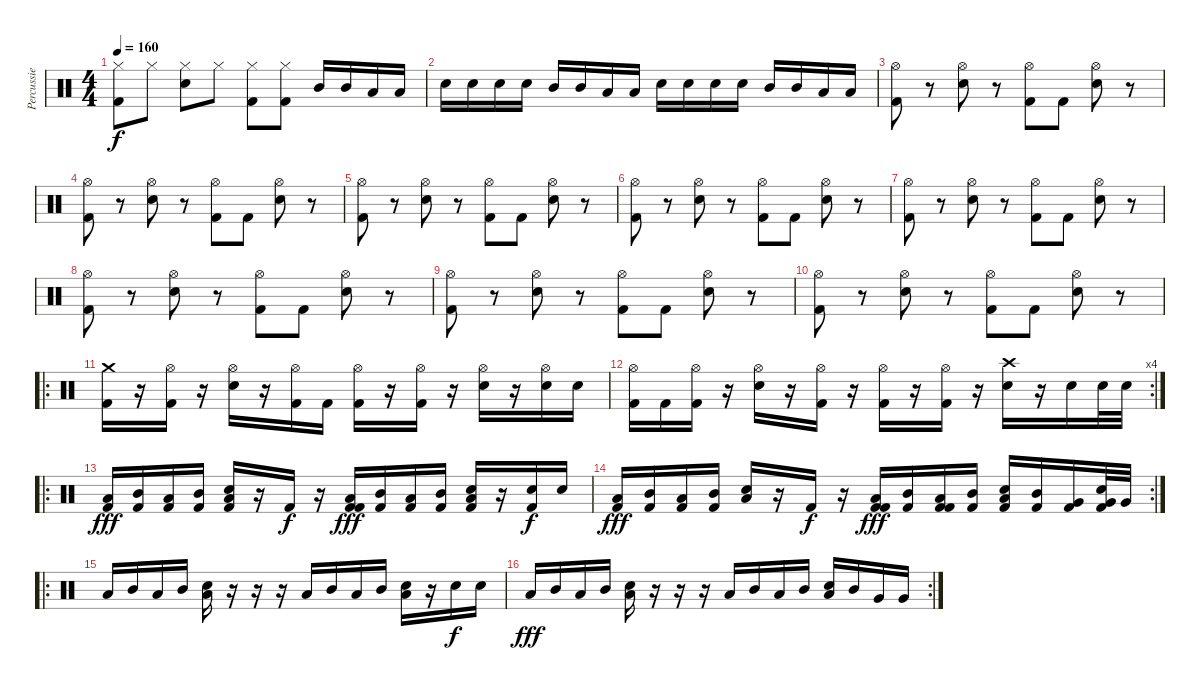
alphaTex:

\track ("Percussie" "Percussie") {instrument percussion}
\staff {score}
\articulation defaults
\ts (4 4)
\tempo 160
\clef neutral
\ks c
("Hi-Hat (closed)" "Kick (hit) 2").8{dy f} "Hi-Hat (closed)".8 ("Hi-Hat (closed)" "Electric Snare (hit)").8 "Hi-Hat (closed)".8 ("Hi-Hat (closed)" "Kick (hit) 2").8 ("Hi-Hat (closed)" "Kick (hit) 2").8 "Mid Tom (hit)".16 "Mid Tom (hit)".16 "Low Tom (hit)".16 "Low Tom (hit)".16 |
"Electric Snare (hit)".16 "Electric Snare (hit)".16 "Electric Snare (hit)".16 "Electric Snare (hit)".16 "Mid Tom (hit)".16 "Mid Tom (hit)".16 "Low Tom (hit)".16 "Low Tom (hit)".16 "Electric Snare (hit)".16 "Electric Snare (hit)".16 "Electric Snare (hit)".16 "Electric Snare (hit)".16 "Mid Tom (hit)".16 "Mid Tom (hit)".16 "Low Tom (hit)".16 "Low Tom (hit)".16 |
("Hi-Hat (open)" "Kick (hit) 2").8 r.8 ("Hi-Hat (open)" "Electric Snare (hit)").8 r.8 ("Hi-Hat (open)" "Kick (hit) 2").8 "Kick (hit) 2".8 ("Hi-Hat (open)" "Electric Snare (hit)").8 r.8 |
("Hi-Hat (open)" "Kick (hit) 2").8 r.8 ("Hi-Hat (open)" "Electric Snare (hit)").8 r.8 ("Hi-Hat (open)" "Kick (hit) 2").8 "Kick (hit) 2".8 ("Hi-Hat (open)" "Electric Snare (hit)").8 r.8 |
("Hi-Hat (open)" "Kick (hit) 2").8 r.8 ("Hi-Hat (open)" "Electric Snare (hit)").8 r.8 ("Hi-Hat (open)" "Kick (hit) 2").8 "Kick (hit) 2".8 ("Hi-Hat (open)" "Electric Snare (hit)").8 r.8 |
("Hi-Hat (open)" "Kick (hit) 2").8 r.8 ("Hi-Hat (open)" "Electric Snare (hit)").8 r.8 ("Hi-Hat (open)" "Kick (hit) 2").8 "Kick (hit) 2".8 ("Hi-Hat (open)" "Electric Snare (hit)").8 r.8 |
("Hi-Hat (open)" "Kick (hit) 2").8 r.8 ("Hi-Hat (open)" "Electric Snare (hit)").8 r.8 ("Hi-Hat (open)" "Kick (hit) 2").8 "Kick (hit) 2".8 ("Hi-Hat (open)" "Electric Snare (hit)").8 r.8 |
("Hi-Hat (open)" "Kick (hit) 2").8 r.8 ("Hi-Hat (open)" "Electric Snare (hit)").8 r.8 ("Hi-Hat (open)" "Kick (hit) 2").8 "Kick (hit) 2".8 ("Hi-Hat (open)" "Electric Snare (hit)").8 r.8 |
("Hi-Hat (open)" "Kick (hit) 2").8 r.8 ("Hi-Hat (open)" "Electric Snare (hit)").8 r.8 ("Hi-Hat (open)" "Kick (hit) 2").8 "Kick (hit) 2".8 ("Hi-Hat (open)" "Electric Snare (hit)").8 r.8 |
("Hi-Hat (open)" "Kick (hit) 2").8 r.8 ("Hi-Hat (open)" "Electric Snare (hit)").8 r.8 ("Hi-Hat (open)" "Kick (hit) 2").8 "Kick (hit) 2".8 ("Hi-Hat (open)" "Electric Snare (hit)").8 r.8 |
\ro
("Crash medium (hit)" "Kick (hit) 2").16 r.16 ("Hi-Hat (open)" "Kick (hit) 2").16 r.16 ("Hi-Hat (open)" "Electric Snare (hit)").16 r.16 ("Hi-Hat (open)" "Kick (hit) 2").16 "Kick (hit) 2".16 ("Hi-Hat (open)" "Kick (hit) 2").16 r.16 ("Hi-Hat (open)" "Kick (hit) 2").16 r.16 ("Hi-Hat (open)" "Electric Snare (hit)").16 r.16 ("Hi-Hat (open)" "Electric Snare (hit)").16 "Electric Snare (hit)".16 |
\rc 4
("Hi-Hat (open)" "Kick (hit) 2").16 "Kick (hit) 2".16 ("Hi-Hat (open)" "Kick (hit) 2").16 r.16 ("Hi-Hat (open)" "Electric Snare (hit)").16 r.16 ("Hi-Hat (open)" "Kick (hit) 2").16 r.16 ("Hi-Hat (open)" "Kick (hit) 2").16 r.16 ("Hi-Hat (open)" "Kick (hit) 2").16 r.16 ("Crash high (hit)" "Electric Snare (hit)").16 r.16 "Electric Snare (hit)".16 "Electric Snare (hit)".32 "Electric Snare (hit)".32 |
\ro
("Low Tom (hit)" "Kick (hit) 2").16{dy fff} ("Mid Tom (hit)" "Kick (hit) 2").16 ("Low Tom (hit)" "Kick (hit) 2").16 ("Mid Tom (hit)" "Kick (hit) 2").16 ("Low Tom (hit)" "Electric Snare (hit)" "Kick (hit) 2").16 r.16 "Kick (hit) 2".16{dy f} r.16 ("Low Tom (hit)" "Kick (hit) 2" "Kick (hit) 2").16{dy fff} ("Mid Tom (hit)" "Kick (hit) 2").16 ("Low Tom (hit)" "Kick (hit) 2").16 ("Mid Tom (hit)" "Kick (hit) 2").16 ("Low Tom (hit)" "Electric Snare (hit)" "Kick (hit) 2").16 r.16 ("Electric Snare (hit)" "Kick (hit) 2").16{dy f} "Electric Snare (hit)".16 |
\rc 2
("Low Tom (hit)" "Kick (hit) 2").16{dy fff} ("Mid Tom (hit)" "Kick (hit) 2").16 ("Low Tom (hit)" "Kick (hit) 2").16 ("Mid Tom (hit)" "Kick (hit) 2").16 ("Low Tom (hit)" "Electric Snare (hit)").16 r.16 "Kick (hit) 2".16{dy f} r.16 ("Low Tom (hit)" "Kick (hit) 2" "Kick (hit) 2").16{dy fff} ("Mid Tom (hit)" "Kick (hit) 2").16 ("Low Tom (hit)" "Kick (hit) 2" "Kick (hit) 2").16 ("Mid Tom (hit)" "Kick (hit) 2").16 ("Low Tom (hit)" "Electric Snare (hit)" "Kick (hit) 2").16 ("Mid Tom (hit)" "Kick (hit) 2").16 ("Very Low Tom (hit)" "Kick (hit) 2").16 ("Very Low Tom (hit)" "Electric Snare (hit)" "Kick (hit) 2").32 "Very Low Tom (hit)".32 |
\ro "Low Tom (hit)".16 "Mid Tom (hit)".16 "Low Tom (hit)".16 "Mid Tom (hit)".16
("Low Tom (hit)" "Electric Snare (hit)").16 r.16 r.16 r.16 "Low Tom (hit)".16 "Mid Tom (hit)".16 "Low Tom (hit)".16 "Mid Tom (hit)".16 ("Low Tom (hit)" "Electric Snare (hit)").16 r.16 "Electric Snare (hit)".16{dy f} "Electric Snare (hit)".16 |
\rc 2 "Low Tom (hit)".16{dy fff} "Mid Tom (hit)".16 "Low Tom (hit)".16 "Mid Tom (hit)".16
("Low Tom (hit)" "Electric Snare (hit)").16 r.16 r.16 r.16 "Low Tom (hit)".16 "Mid Tom (hit)".16 "Low Tom (hit)".16 "Mid Tom (hit)".16 ("Low Tom (hit)" "Electric Snare (hit)").16 "Mid Tom (hit)".16 "Very Low Tom (hit)".16 "Very Low Tom (hit)".16
